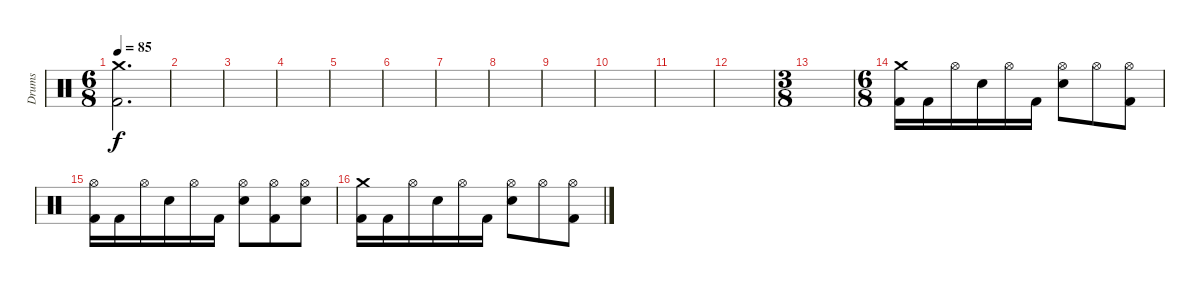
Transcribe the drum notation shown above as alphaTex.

\track ("Drums" "Drums") {instrument percussion}
\staff {score}
\articulation defaults
\ts (6 8)
\tempo 85
\clef neutral
\ks c
("Crash medium (hit)" "Kick (hit) 2").2{d dy f} |
|
|
|
|
|
|
|
|
|
|
|
\ts (3 8)
|
\ts (6 8)
("Crash medium (hit)" "Kick (hit) 2").16 "Kick (hit) 2".16 "Hi-Hat (open)".16 "Electric Snare (hit)".16 "Hi-Hat (open)".16 "Kick (hit) 2".16 ("Hi-Hat (open)" "Electric Snare (hit)").8 "Hi-Hat (open)".8 ("Hi-Hat (open)" "Kick (hit) 2").8 |
("Hi-Hat (open)" "Kick (hit) 2").16 "Kick (hit) 2".16 "Hi-Hat (open)".16 "Electric Snare (hit)".16 "Hi-Hat (open)".16 "Kick (hit) 2".16 ("Hi-Hat (open)" "Electric Snare (hit)").8 ("Hi-Hat (open)" "Kick (hit) 2").8 ("Hi-Hat (open)" "Electric Snare (hit)").8 |
("Crash medium (hit)" "Kick (hit) 2").16 "Kick (hit) 2".16 "Hi-Hat (open)".16 "Electric Snare (hit)".16 "Hi-Hat (open)".16 "Kick (hit) 2".16 ("Hi-Hat (open)" "Electric Snare (hit)").8 "Hi-Hat (open)".8 ("Hi-Hat (open)" "Kick (hit) 2").8
